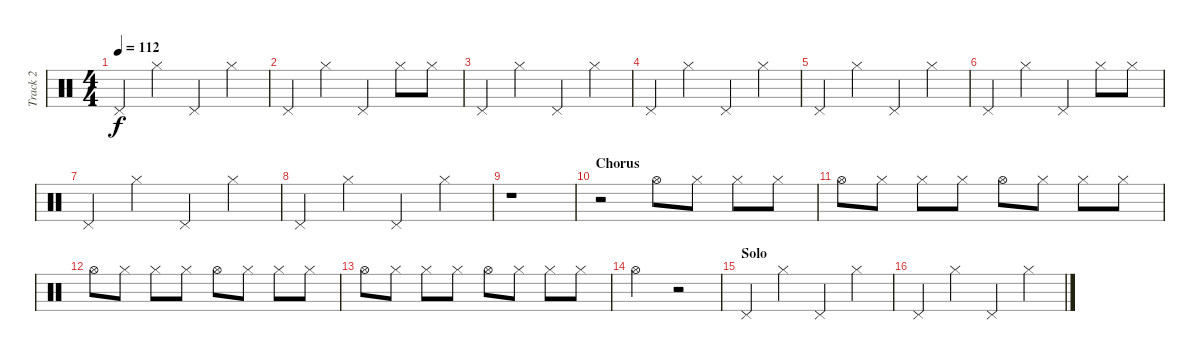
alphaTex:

\track ("Track 2" "Track 2") {instrument percussion}
\staff {score}
\articulation defaults
\ts (4 4)
\tempo 112
\clef neutral
\ks c "Pedal Hi-Hat (hit)".4{dy f} "Hi-Hat (closed)".4 "Pedal Hi-Hat (hit)".4 "Hi-Hat (closed)".4
|
"Pedal Hi-Hat (hit)".4 "Hi-Hat (closed)".4 "Pedal Hi-Hat (hit)".4 "Hi-Hat (closed)".8 "Hi-Hat (closed)".8 |
"Pedal Hi-Hat (hit)".4 "Hi-Hat (closed)".4 "Pedal Hi-Hat (hit)".4 "Hi-Hat (closed)".4 |
"Pedal Hi-Hat (hit)".4 "Hi-Hat (closed)".4 "Pedal Hi-Hat (hit)".4 "Hi-Hat (closed)".4 |
"Pedal Hi-Hat (hit)".4 "Hi-Hat (closed)".4 "Pedal Hi-Hat (hit)".4 "Hi-Hat (closed)".4 |
"Pedal Hi-Hat (hit)".4 "Hi-Hat (closed)".4 "Pedal Hi-Hat (hit)".4 "Hi-Hat (closed)".8 "Hi-Hat (closed)".8 |
"Pedal Hi-Hat (hit)".4 "Hi-Hat (closed)".4 "Pedal Hi-Hat (hit)".4 "Hi-Hat (closed)".4 |
"Pedal Hi-Hat (hit)".4 "Hi-Hat (closed)".4 "Pedal Hi-Hat (hit)".4 "Hi-Hat (closed)".4 |
r.1 |
\section ("" "Chorus")
r.2 "Hi-Hat (open)".8 "Hi-Hat (closed)".8 "Hi-Hat (closed)".8 "Hi-Hat (closed)".8 |
"Hi-Hat (open)".8 "Hi-Hat (closed)".8 "Hi-Hat (closed)".8 "Hi-Hat (closed)".8 "Hi-Hat (open)".8 "Hi-Hat (closed)".8 "Hi-Hat (closed)".8 "Hi-Hat (closed)".8 |
"Hi-Hat (open)".8 "Hi-Hat (closed)".8 "Hi-Hat (closed)".8 "Hi-Hat (closed)".8 "Hi-Hat (open)".8 "Hi-Hat (closed)".8 "Hi-Hat (closed)".8 "Hi-Hat (closed)".8 |
"Hi-Hat (open)".8 "Hi-Hat (closed)".8 "Hi-Hat (closed)".8 "Hi-Hat (closed)".8 "Hi-Hat (open)".8 "Hi-Hat (closed)".8 "Hi-Hat (closed)".8 "Hi-Hat (closed)".8 |
"Hi-Hat (open)".2 r.2 |
\section ("" "Solo")
"Pedal Hi-Hat (hit)".4 "Hi-Hat (closed)".4 "Pedal Hi-Hat (hit)".4 "Hi-Hat (closed)".4 |
"Pedal Hi-Hat (hit)".4 "Hi-Hat (closed)".4 "Pedal Hi-Hat (hit)".4 "Hi-Hat (closed)".4
